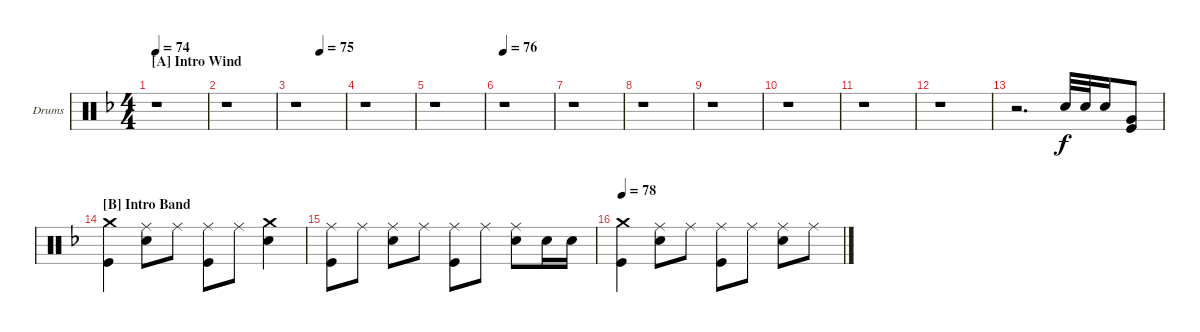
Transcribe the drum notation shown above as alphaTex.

\bracketExtendMode groupsimilarinstruments
\firstSystemTrackNameOrientation horizontal
\otherSystemsTrackNameOrientation horizontal
\track ("Vinny Appice" "Drums") {instrument percussion}
\staff {score}
\articulation defaults
\ts (4 4)
\section ("A" "Intro Wind")
\tempo 74
\clef neutral
\ks dminor
r.1{dy f} |
r.1 |
\tempo (75 0.5)
r.1 |
\beaming (8 2 2 2 2)
r.1 |
r.1 |
\tempo 76
r.1 |
r.1 |
r.1 |
r.1 |
r.1 |
r.1 |
r.1 |
r.2{d} "Snare (hit) 2".32 "Snare (hit) 2".32 "Snare (hit) 2".16 ("Very Low Tom (hit)" "Kick (hit)").8 |
\section ("B" "Intro Band")
("Crash medium (hit)" "Kick (hit)").4 ("Ride (middle)" "Snare (hit) 2").8 "Ride (middle)".8 ("Ride (middle)" "Kick (hit)").8 "Ride (middle)".8 ("Crash medium (hit)" "Snare (hit) 2").4 |
("Ride (middle)" "Kick (hit)").8 "Ride (middle)".8 ("Ride (middle)" "Snare (hit) 2").8 "Ride (middle)".8 ("Ride (middle)" "Kick (hit)").8 "Ride (middle)".8 ("Ride (middle)" "Snare (hit) 2").8 "Snare (hit) 2".16 "Snare (hit) 2".16 |
\tempo 78
("Crash medium (hit)" "Kick (hit)").4 ("Ride (middle)" "Snare (hit) 2").8 "Ride (middle)".8 ("Ride (middle)" "Kick (hit)").8 "Ride (middle)".8 ("Ride (middle)" "Snare (hit) 2").8 "Ride (middle)".8
